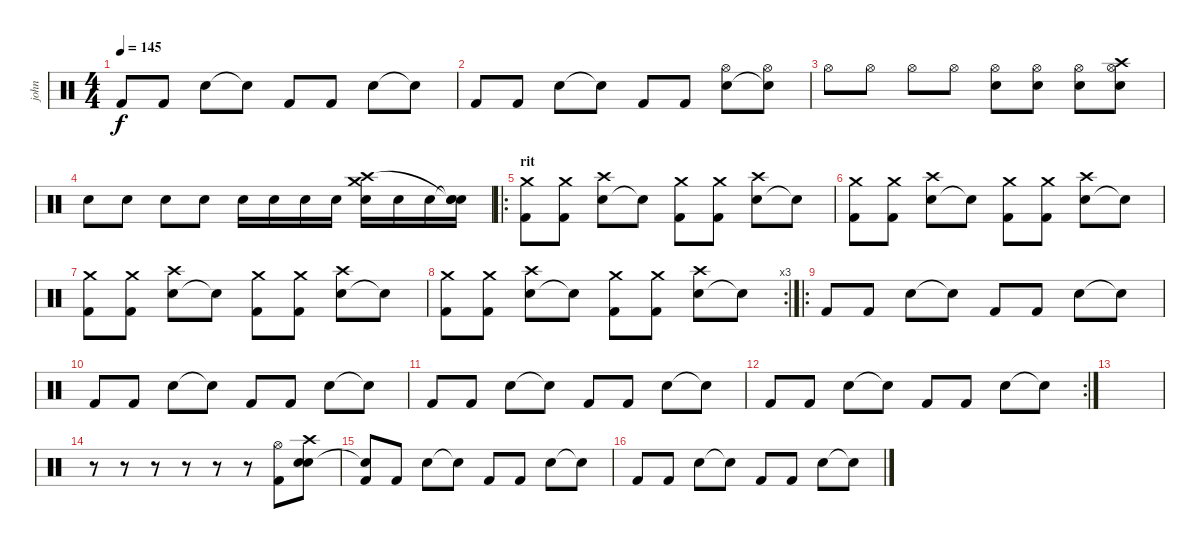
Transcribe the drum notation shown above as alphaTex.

\track ("john" "john") {instrument percussion}
\staff {score}
\articulation defaults
\ts (4 4)
\tempo 145
\clef neutral
\ks c "Kick (hit) 2".8{dy f} "Kick (hit) 2".8 "Snare (hit) 2".8 "Snare (hit)"{t}.8 "Kick (hit) 2".8 "Kick (hit) 2".8 "Snare (hit) 2".8 "Snare (hit)"{t}.8
|
"Kick (hit) 2".8 "Kick (hit) 2".8 "Snare (hit) 2".8 "Snare (hit)"{t}.8 "Kick (hit) 2".8 "Kick (hit) 2".8 ("Snare (hit) 2" "Hi-Hat (open)").8 ("Snare (hit)"{t} "Hi-Hat (open)").8 |
"Hi-Hat (open)".8 "Hi-Hat (open)".8 "Hi-Hat (open)".8 "Hi-Hat (open)".8 ("Hi-Hat (open)" "Electric Snare (hit)").8 ("Hi-Hat (open)" "Electric Snare (hit)").8 ("Hi-Hat (open)" "Electric Snare (hit)").8 ("Hi-Hat (open)" "Snare (hit) 2" "Crash high (hit)").8 |
"Snare (hit) 2".8 "Snare (hit) 2".8 "Snare (hit) 2".8 "Snare (hit) 2".8 "Snare (hit) 2".16 "Snare (hit) 2".16 "Snare (hit) 2".16 "Snare (hit) 2".16 ("Crash medium (hit)" "Crash high (hit)" "Snare (hit) 2").16 "Snare (hit) 2".16 "Snare (hit) 2".16 ("Snare (hit)"{t} "Snare (hit)"{t} "Snare (hit) 2").16 |
\ro
\section ("" "rit")
("Kick (hit) 2" "Crash medium (hit)").8 ("Kick (hit) 2" "Crash medium (hit)").8 ("Snare (hit) 2" "Crash high (hit)").8 "Snare (hit)"{t}.8 ("Kick (hit) 2" "Crash medium (hit)").8 ("Kick (hit) 2" "Crash medium (hit)").8 ("Snare (hit) 2" "Crash high (hit)").8 "Snare (hit)"{t}.8 |
("Kick (hit) 2" "Crash medium (hit)").8 ("Kick (hit) 2" "Crash medium (hit)").8 ("Snare (hit) 2" "Crash high (hit)").8 "Snare (hit)"{t}.8 ("Kick (hit) 2" "Crash medium (hit)").8 ("Kick (hit) 2" "Crash medium (hit)").8 ("Snare (hit) 2" "Crash high (hit)").8 "Snare (hit)"{t}.8 |
("Kick (hit) 2" "Crash medium (hit)").8 ("Kick (hit) 2" "Crash medium (hit)").8 ("Snare (hit) 2" "Crash high (hit)").8 "Snare (hit)"{t}.8 ("Kick (hit) 2" "Crash medium (hit)").8 ("Kick (hit) 2" "Crash medium (hit)").8 ("Snare (hit) 2" "Crash high (hit)").8 "Snare (hit)"{t}.8 |
\rc 3
("Kick (hit) 2" "Crash medium (hit)").8 ("Kick (hit) 2" "Crash medium (hit)").8 ("Snare (hit) 2" "Crash high (hit)").8 "Snare (hit)"{t}.8 ("Kick (hit) 2" "Crash medium (hit)").8 ("Kick (hit) 2" "Crash medium (hit)").8 ("Snare (hit) 2" "Crash high (hit)").8 "Snare (hit)"{t}.8 |
\ro "Kick (hit) 2".8 "Kick (hit) 2".8 "Snare (hit) 2".8 "Snare (hit)"{t}.8 "Kick (hit) 2".8 "Kick (hit) 2".8 "Snare (hit) 2".8 "Snare (hit)"{t}.8
|
"Kick (hit) 2".8 "Kick (hit) 2".8 "Snare (hit) 2".8 "Snare (hit)"{t}.8 "Kick (hit) 2".8 "Kick (hit) 2".8 "Snare (hit) 2".8 "Snare (hit)"{t}.8 |
"Kick (hit) 2".8 "Kick (hit) 2".8 "Snare (hit) 2".8 "Snare (hit)"{t}.8 "Kick (hit) 2".8 "Kick (hit) 2".8 "Snare (hit) 2".8 "Snare (hit)"{t}.8 |
\rc 2 "Kick (hit) 2".8 "Kick (hit) 2".8 "Snare (hit) 2".8 "Snare (hit)"{t}.8 "Kick (hit) 2".8 "Kick (hit) 2".8 "Snare (hit) 2".8 "Snare (hit)"{t}.8
|
|
r.8 r.8 r.8 r.8 r.8 r.8 ("Kick (hit) 2" "Hi-Hat (open)").8 ("Crash high (hit)" "Snare (hit) 2" "Snare (hit)").8 |
("Kick (hit) 2" "Snare (hit)"{t}).8 "Kick (hit) 2".8 "Snare (hit) 2".8 "Snare (hit)"{t}.8 "Kick (hit) 2".8 "Kick (hit) 2".8 "Snare (hit) 2".8 "Snare (hit)"{t}.8 |
"Kick (hit) 2".8 "Kick (hit) 2".8 "Snare (hit) 2".8 "Snare (hit)"{t}.8 "Kick (hit) 2".8 "Kick (hit) 2".8 "Snare (hit) 2".8 "Snare (hit)"{t}.8
